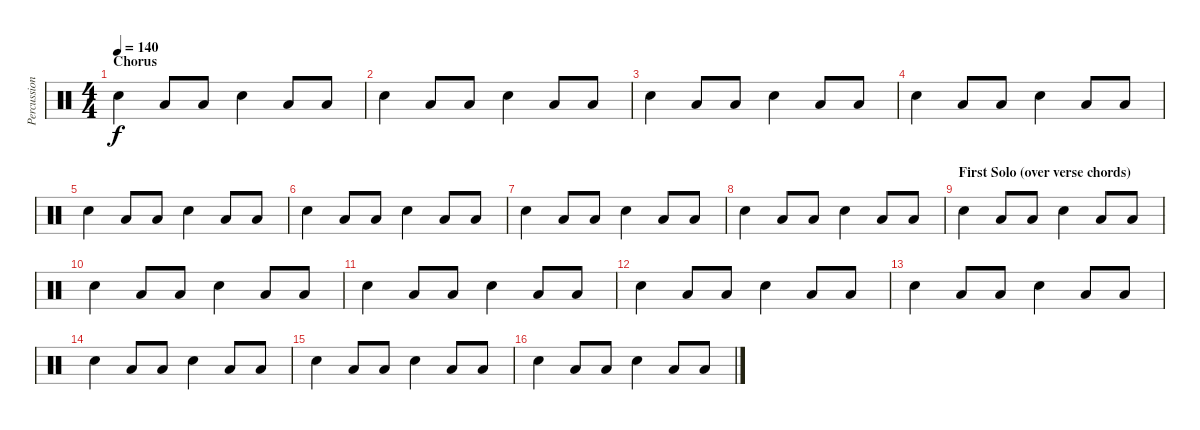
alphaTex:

\track ("Percussion" "Percussion") {instrument percussion}
\staff {score}
\articulation defaults
\ts (4 4)
\section ("" "Chorus")
\tempo 140
\clef neutral
\ks c "Electric Snare (hit)".4{dy f} "Low Floor Tom (hit)".8 "Low Floor Tom (hit)".8 "Electric Snare (hit)".4 "Low Floor Tom (hit)".8 "Low Floor Tom (hit)".8
|
"Electric Snare (hit)".4 "Low Floor Tom (hit)".8 "Low Floor Tom (hit)".8 "Electric Snare (hit)".4 "Low Floor Tom (hit)".8 "Low Floor Tom (hit)".8 |
"Electric Snare (hit)".4 "Low Floor Tom (hit)".8 "Low Floor Tom (hit)".8 "Electric Snare (hit)".4 "Low Floor Tom (hit)".8 "Low Floor Tom (hit)".8 |
"Electric Snare (hit)".4 "Low Floor Tom (hit)".8 "Low Floor Tom (hit)".8 "Electric Snare (hit)".4 "Low Floor Tom (hit)".8 "Low Floor Tom (hit)".8 |
"Electric Snare (hit)".4 "Low Floor Tom (hit)".8 "Low Floor Tom (hit)".8 "Electric Snare (hit)".4 "Low Floor Tom (hit)".8 "Low Floor Tom (hit)".8 |
"Electric Snare (hit)".4 "Low Floor Tom (hit)".8 "Low Floor Tom (hit)".8 "Electric Snare (hit)".4 "Low Floor Tom (hit)".8 "Low Floor Tom (hit)".8 |
"Electric Snare (hit)".4 "Low Floor Tom (hit)".8 "Low Floor Tom (hit)".8 "Electric Snare (hit)".4 "Low Floor Tom (hit)".8 "Low Floor Tom (hit)".8 |
"Electric Snare (hit)".4 "Low Floor Tom (hit)".8 "Low Floor Tom (hit)".8 "Electric Snare (hit)".4 "Low Floor Tom (hit)".8 "Low Floor Tom (hit)".8 |
\section ("" "First Solo (over verse chords)")
"Electric Snare (hit)".4 "Low Floor Tom (hit)".8 "Low Floor Tom (hit)".8 "Electric Snare (hit)".4 "Low Floor Tom (hit)".8 "Low Floor Tom (hit)".8 |
"Electric Snare (hit)".4 "Low Floor Tom (hit)".8 "Low Floor Tom (hit)".8 "Electric Snare (hit)".4 "Low Floor Tom (hit)".8 "Low Floor Tom (hit)".8 |
"Electric Snare (hit)".4 "Low Floor Tom (hit)".8 "Low Floor Tom (hit)".8 "Electric Snare (hit)".4 "Low Floor Tom (hit)".8 "Low Floor Tom (hit)".8 |
"Electric Snare (hit)".4 "Low Floor Tom (hit)".8 "Low Floor Tom (hit)".8 "Electric Snare (hit)".4 "Low Floor Tom (hit)".8 "Low Floor Tom (hit)".8 |
"Electric Snare (hit)".4 "Low Floor Tom (hit)".8 "Low Floor Tom (hit)".8 "Electric Snare (hit)".4 "Low Floor Tom (hit)".8 "Low Floor Tom (hit)".8 |
"Electric Snare (hit)".4 "Low Floor Tom (hit)".8 "Low Floor Tom (hit)".8 "Electric Snare (hit)".4 "Low Floor Tom (hit)".8 "Low Floor Tom (hit)".8 |
"Electric Snare (hit)".4 "Low Floor Tom (hit)".8 "Low Floor Tom (hit)".8 "Electric Snare (hit)".4 "Low Floor Tom (hit)".8 "Low Floor Tom (hit)".8 |
"Electric Snare (hit)".4 "Low Floor Tom (hit)".8 "Low Floor Tom (hit)".8 "Electric Snare (hit)".4 "Low Floor Tom (hit)".8 "Low Floor Tom (hit)".8
